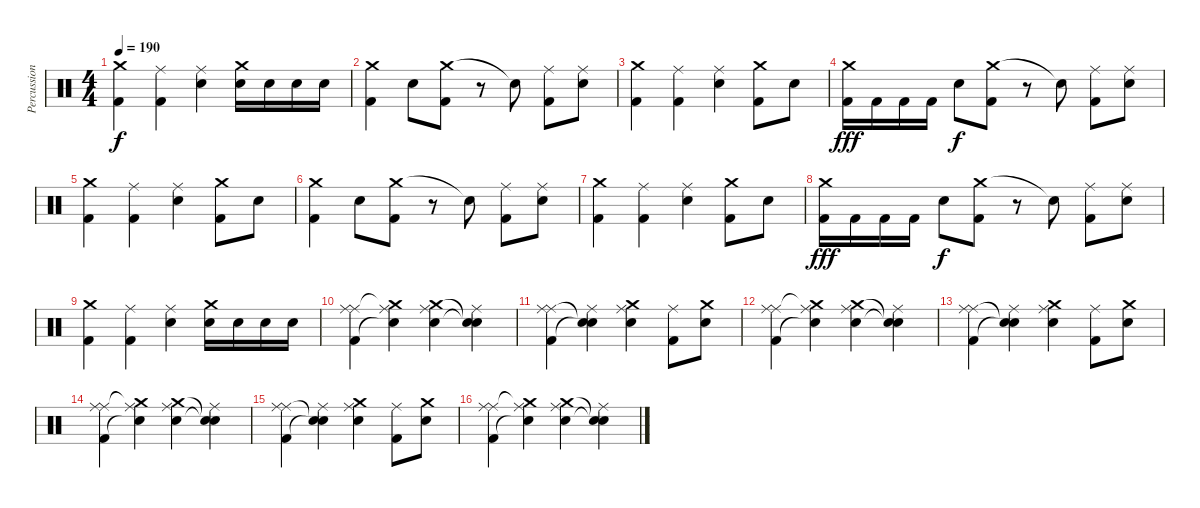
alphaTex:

\track ("Percussions" "Percussion") {instrument percussion}
\staff {score}
\articulation defaults
\ts (4 4)
\tempo 190
\clef neutral
\ks c
("Crash medium (hit)" "Kick (hit) 2").4{dy f} ("Ride (middle)" "Kick (hit) 2").4 ("Ride (middle)" "Electric Snare (hit)").4 ("Crash medium (hit)" "Electric Snare (hit)").16 "Electric Snare (hit)".16 "Electric Snare (hit)".16 "Electric Snare (hit)".16 |
("Crash medium (hit)" "Kick (hit) 2").4 "Electric Snare (hit)".8 ("Crash medium (hit)" "Kick (hit) 2").8 r.8 "Snare (hit)"{t}.8 ("Ride (middle)" "Kick (hit) 2").8 ("Ride (middle)" "Electric Snare (hit)").8 |
("Crash medium (hit)" "Kick (hit) 2").4 ("Ride (middle)" "Kick (hit) 2").4 ("Ride (middle)" "Electric Snare (hit)").4 ("Crash medium (hit)" "Kick (hit) 2").8 "Electric Snare (hit)".8 |
("Crash medium (hit)" "Kick (hit) 2").16{dy fff} "Kick (hit) 2".16 "Kick (hit) 2".16 "Kick (hit) 2".16 "Electric Snare (hit)".8{dy f} ("Crash medium (hit)" "Kick (hit) 2").8 r.8 "Snare (hit)"{t}.8 ("Ride (middle)" "Kick (hit) 2").8 ("Ride (middle)" "Electric Snare (hit)").8 |
("Crash medium (hit)" "Kick (hit) 2").4 ("Ride (middle)" "Kick (hit) 2").4 ("Ride (middle)" "Electric Snare (hit)").4 ("Crash medium (hit)" "Kick (hit) 2").8 "Electric Snare (hit)".8 |
("Crash medium (hit)" "Kick (hit) 2").4 "Electric Snare (hit)".8 ("Crash medium (hit)" "Kick (hit) 2").8 r.8 "Snare (hit)"{t}.8 ("Ride (middle)" "Kick (hit) 2").8 ("Ride (middle)" "Electric Snare (hit)").8 |
("Crash medium (hit)" "Kick (hit) 2").4 ("Ride (middle)" "Kick (hit) 2").4 ("Ride (middle)" "Electric Snare (hit)").4 ("Crash medium (hit)" "Kick (hit) 2").8 "Electric Snare (hit)".8 |
("Crash medium (hit)" "Kick (hit) 2").16{dy fff} "Kick (hit) 2".16 "Kick (hit) 2".16 "Kick (hit) 2".16 "Electric Snare (hit)".8{dy f} ("Crash medium (hit)" "Kick (hit) 2").8 r.8 "Snare (hit)"{t}.8 ("Ride (middle)" "Kick (hit) 2").8 ("Ride (middle)" "Electric Snare (hit)").8 |
("Crash medium (hit)" "Kick (hit) 2").4 ("Ride (middle)" "Kick (hit) 2").4 ("Ride (middle)" "Electric Snare (hit)").4 ("Crash medium (hit)" "Electric Snare (hit)").16 "Electric Snare (hit)".16 "Electric Snare (hit)".16 "Electric Snare (hit)".16 |
("Ride (middle)" "Ride (middle)" "Kick (hit) 2").4 ("Ride (middle)" "Crash medium (hit)"{t} "Electric Snare (hit)"{t}).4 ("Ride (middle)" "Crash medium (hit)" "Electric Snare (hit)").4 ("Ride (middle)" "Snare (hit)"{t} "Snare (hit)"{t}).4 |
("Ride (middle)" "Ride (middle)" "Kick (hit) 2").4 ("Ride (middle)" "Snare (hit)"{t} "Snare (hit)"{t}).4 ("Ride (middle)" "Crash medium (hit)" "Electric Snare (hit)").4 ("Ride (middle)" "Kick (hit) 2").8 ("Crash medium (hit)" "Electric Snare (hit)").8 |
("Ride (middle)" "Ride (middle)" "Kick (hit) 2").4 ("Ride (middle)" "Crash medium (hit)"{t} "Electric Snare (hit)"{t}).4 ("Ride (middle)" "Crash medium (hit)" "Electric Snare (hit)").4 ("Ride (middle)" "Snare (hit)"{t} "Snare (hit)"{t}).4 |
("Ride (middle)" "Ride (middle)" "Kick (hit) 2").4 ("Ride (middle)" "Snare (hit)"{t} "Snare (hit)"{t}).4 ("Ride (middle)" "Crash medium (hit)" "Electric Snare (hit)").4 ("Ride (middle)" "Kick (hit) 2").8 ("Crash medium (hit)" "Electric Snare (hit)").8 |
("Ride (middle)" "Ride (middle)" "Kick (hit) 2").4 ("Ride (middle)" "Crash medium (hit)"{t} "Electric Snare (hit)"{t}).4 ("Ride (middle)" "Crash medium (hit)" "Electric Snare (hit)").4 ("Ride (middle)" "Snare (hit)"{t} "Snare (hit)"{t}).4 |
("Ride (middle)" "Ride (middle)" "Kick (hit) 2").4 ("Ride (middle)" "Snare (hit)"{t} "Snare (hit)"{t}).4 ("Ride (middle)" "Crash medium (hit)" "Electric Snare (hit)").4 ("Ride (middle)" "Kick (hit) 2").8 ("Crash medium (hit)" "Electric Snare (hit)").8 |
("Ride (middle)" "Ride (middle)" "Kick (hit) 2").4 ("Ride (middle)" "Crash medium (hit)"{t} "Electric Snare (hit)"{t}).4 ("Ride (middle)" "Crash medium (hit)" "Electric Snare (hit)").4 ("Ride (middle)" "Snare (hit)"{t} "Snare (hit)"{t}).4
